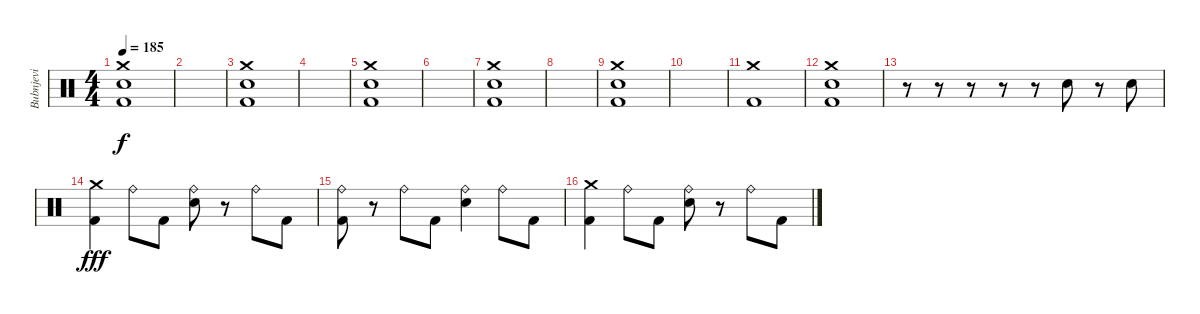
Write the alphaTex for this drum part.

\track ("Bubnjevi" "Bubnjevi") {instrument percussion}
\staff {score}
\articulation defaults
\ts (4 4)
\tempo 185
\clef neutral
\ks c
("Crash medium (hit)" "Snare (hit) 2" "Kick (hit) 2").1{dy f} |
|
("Crash medium (hit)" "Snare (hit) 2" "Kick (hit) 2").1 |
|
("Crash medium (hit)" "Snare (hit) 2" "Kick (hit) 2").1 |
|
("Crash medium (hit)" "Snare (hit) 2" "Kick (hit) 2").1 |
|
("Crash medium (hit)" "Snare (hit) 2" "Kick (hit) 2").1 |
|
("Crash medium (hit)" "Kick (hit) 2").1 |
("Crash medium (hit)" "Snare (hit) 2" "Kick (hit) 2").1 |
r.8 r.8 r.8 r.8 r.8 "Snare (hit) 2".8 r.8 "Snare (hit) 2".8 |
("Crash medium (hit)" "Kick (hit) 2").4{dy fff} "Ride (bell)".8 "Kick (hit) 2".8 ("Ride (bell)" "Snare (hit) 2").8 r.8 "Ride (bell)".8 "Kick (hit) 2".8 |
("Ride (bell)" "Kick (hit) 2").8 r.8 "Ride (bell)".8 "Kick (hit) 2".8 ("Ride (bell)" "Snare (hit) 2").4 "Ride (bell)".8 "Kick (hit) 2".8 |
("Crash medium (hit)" "Kick (hit) 2").4 "Ride (bell)".8 "Kick (hit) 2".8 ("Ride (bell)" "Snare (hit) 2").8 r.8 "Ride (bell)".8 "Kick (hit) 2".8
